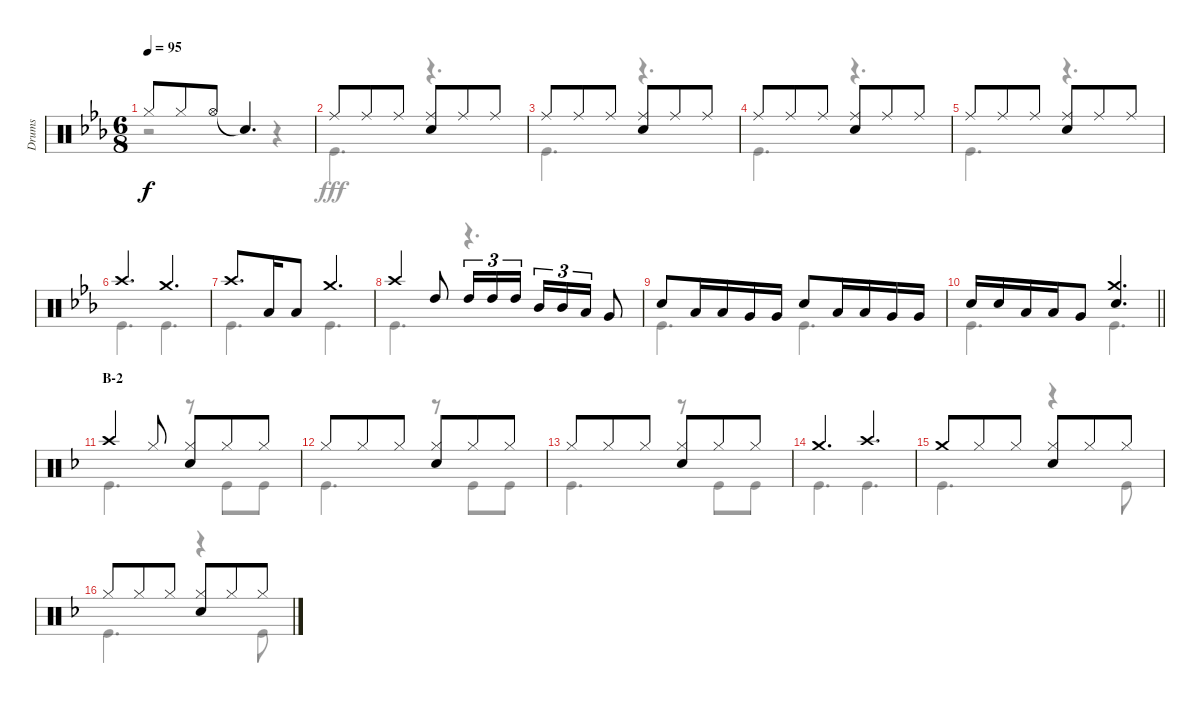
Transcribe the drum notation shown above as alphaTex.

\track ("Drums" "Drums") {instrument percussion}
\staff {score}
\articulation defaults
\voice
\ts (6 8)
\tempo 95
\clef neutral
\ks eb "Hi-Hat (closed)".8{dy f} "Hi-Hat (closed)".8 "Hi-Hat (open)".8 "Snare (hit)"{t}.4{d}
|
"Ride (middle)".8 "Ride (middle)".8 "Ride (middle)".8 ("Ride (middle)" "Snare (hit) 2").8 "Ride (middle)".8 "Ride (middle)".8 |
"Ride (middle)".8 "Ride (middle)".8 "Ride (middle)".8 ("Ride (middle)" "Snare (hit) 2").8 "Ride (middle)".8 "Ride (middle)".8 |
"Ride (middle)".8 "Ride (middle)".8 "Ride (middle)".8 ("Ride (middle)" "Snare (hit) 2").8 "Ride (middle)".8 "Ride (middle)".8 |
"Ride (middle)".8 "Ride (middle)".8 "Ride (middle)".8 ("Ride (middle)" "Snare (hit) 2").8 "Ride (middle)".8 "Ride (middle)".8 |
"Crash high (hit)".4{d} "Crash medium (hit)".4{d} |
"Crash high (hit)".8{d} "Low Tom (hit)".16 "Low Tom (hit)".8 "Crash medium (hit)".4{d} |
"Crash high (hit)".4 "High Tom (hit)".8 "High Tom (hit)".16{tu (3 2)} "High Tom (hit)".16{tu (3 2)} "High Tom (hit)".16{tu (3 2) beam splitsecondary} "Mid Tom (hit)".16{tu (3 2)} "Mid Tom (hit)".16{tu (3 2)} "Low Tom (hit)".16{tu (3 2)} "Very Low Tom (hit)".8 |
"Snare (hit) 2".8 "Low Tom (hit)".16 "Low Tom (hit)".16 "Very Low Tom (hit)".16 "Very Low Tom (hit)".16 "Snare (hit) 2".8 "Low Tom (hit)".16 "Low Tom (hit)".16 "Very Low Tom (hit)".16 "Very Low Tom (hit)".16 |
\barLineRight lightlight "Snare (hit) 2".16 "Snare (hit) 2".16 "Low Tom (hit)".16 "Low Tom (hit)".16 "Very Low Tom (hit)".8
("Crash medium (hit)" "Snare (hit) 2").4{d} |
\section ("" "B-2")
\ks f "Crash high (hit)".4 "Hi-Hat (closed)".8
("Hi-Hat (closed)" "Snare (hit) 2").8 "Hi-Hat (closed)".8 "Hi-Hat (closed)".8 |
"Hi-Hat (closed)".8 "Hi-Hat (closed)".8 "Hi-Hat (closed)".8 ("Hi-Hat (closed)" "Snare (hit) 2").8 "Hi-Hat (closed)".8 "Hi-Hat (closed)".8 |
"Hi-Hat (closed)".8 "Hi-Hat (closed)".8 "Hi-Hat (closed)".8 ("Hi-Hat (closed)" "Snare (hit) 2").8 "Hi-Hat (closed)".8 "Hi-Hat (closed)".8 |
"Crash medium (hit)".4{d} "Crash high (hit)".4{d} |
"Crash medium (hit)".8 "Hi-Hat (closed)".8 "Hi-Hat (closed)".8 ("Hi-Hat (closed)" "Snare (hit) 2").8 "Hi-Hat (closed)".8 "Hi-Hat (closed)".8 |
"Hi-Hat (closed)".8 "Hi-Hat (closed)".8 "Hi-Hat (closed)".8 ("Hi-Hat (closed)" "Snare (hit) 2").8 "Hi-Hat (closed)".8 "Hi-Hat (closed)".8
\voice
\clef neutral
\ottava regular
\simile none
\ks eb
r.2{dy fff} r.4 |
"Kick (hit)".4{d} r.4{d} |
"Kick (hit)".4{d} r.4{d} |
"Kick (hit)".4{d} r.4{d} |
"Kick (hit)".4{d} r.4{d} |
"Kick (hit)".4{d} "Kick (hit)".4{d} |
"Kick (hit)".4{d} "Kick (hit)".4{d} |
"Kick (hit)".4{d} r.4{d} |
"Kick (hit)".4{d} "Kick (hit)".4{d} |
\barLineRight lightlight "Kick (hit)".4{d} "Kick (hit)".4{d}
|
\ks f "Kick (hit)".4{d}
r.8 "Kick (hit)".8 "Kick (hit)".8 |
"Kick (hit)".4{d} r.8 "Kick (hit)".8 "Kick (hit)".8 |
"Kick (hit)".4{d} r.8 "Kick (hit)".8 "Kick (hit)".8 |
"Kick (hit)".4{d} "Kick (hit)".4{d} |
"Kick (hit)".4{d} r.4 "Kick (hit)".8 |
"Kick (hit)".4{d} r.4 "Kick (hit)".8
